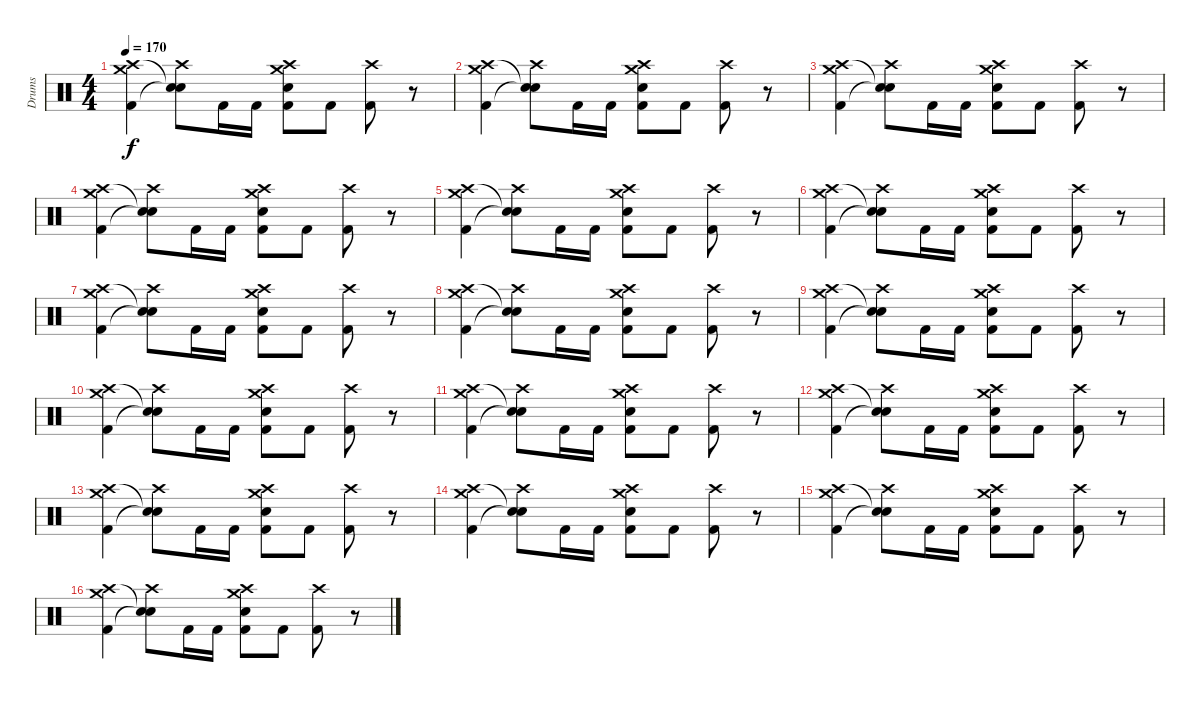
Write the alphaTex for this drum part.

\track ("Drums" "Drums") {instrument percussion}
\staff {score}
\articulation defaults
\ts (4 4)
\tempo 170
\clef neutral
\ks c
("Crash medium (hit)" "Crash high (hit)" "Kick (hit) 2").4{dy f} ("Crash high (hit)" "Snare (hit)"{t} "Snare (hit)"{t}).8 "Kick (hit) 2".16 "Kick (hit) 2".16 ("Crash high (hit)" "Snare (hit) 2" "Crash medium (hit)" "Kick (hit) 2").8 "Kick (hit) 2".8 ("Crash high (hit)" "Kick (hit) 2").8 r.8 |
("Crash medium (hit)" "Crash high (hit)" "Kick (hit) 2").4 ("Crash high (hit)" "Snare (hit)"{t} "Snare (hit)"{t}).8 "Kick (hit) 2".16 "Kick (hit) 2".16 ("Crash high (hit)" "Snare (hit) 2" "Crash medium (hit)" "Kick (hit) 2").8 "Kick (hit) 2".8 ("Crash high (hit)" "Kick (hit) 2").8 r.8 |
("Crash medium (hit)" "Crash high (hit)" "Kick (hit) 2").4 ("Crash high (hit)" "Snare (hit)"{t} "Snare (hit)"{t}).8 "Kick (hit) 2".16 "Kick (hit) 2".16 ("Crash high (hit)" "Snare (hit) 2" "Crash medium (hit)" "Kick (hit) 2").8 "Kick (hit) 2".8 ("Crash high (hit)" "Kick (hit) 2").8 r.8 |
("Crash medium (hit)" "Crash high (hit)" "Kick (hit) 2").4 ("Crash high (hit)" "Snare (hit)"{t} "Snare (hit)"{t}).8 "Kick (hit) 2".16 "Kick (hit) 2".16 ("Crash high (hit)" "Snare (hit) 2" "Crash medium (hit)" "Kick (hit) 2").8 "Kick (hit) 2".8 ("Crash high (hit)" "Kick (hit) 2").8 r.8 |
("Crash medium (hit)" "Crash high (hit)" "Kick (hit) 2").4 ("Crash high (hit)" "Snare (hit)"{t} "Snare (hit)"{t}).8 "Kick (hit) 2".16 "Kick (hit) 2".16 ("Crash high (hit)" "Snare (hit) 2" "Crash medium (hit)" "Kick (hit) 2").8 "Kick (hit) 2".8 ("Crash high (hit)" "Kick (hit) 2").8 r.8 |
("Crash medium (hit)" "Crash high (hit)" "Kick (hit) 2").4 ("Crash high (hit)" "Snare (hit)"{t} "Snare (hit)"{t}).8 "Kick (hit) 2".16 "Kick (hit) 2".16 ("Crash high (hit)" "Snare (hit) 2" "Crash medium (hit)" "Kick (hit) 2").8 "Kick (hit) 2".8 ("Crash high (hit)" "Kick (hit) 2").8 r.8 |
("Crash medium (hit)" "Crash high (hit)" "Kick (hit) 2").4 ("Crash high (hit)" "Snare (hit)"{t} "Snare (hit)"{t}).8 "Kick (hit) 2".16 "Kick (hit) 2".16 ("Crash high (hit)" "Snare (hit) 2" "Crash medium (hit)" "Kick (hit) 2").8 "Kick (hit) 2".8 ("Crash high (hit)" "Kick (hit) 2").8 r.8 |
("Crash medium (hit)" "Crash high (hit)" "Kick (hit) 2").4 ("Crash high (hit)" "Snare (hit)"{t} "Snare (hit)"{t}).8 "Kick (hit) 2".16 "Kick (hit) 2".16 ("Crash high (hit)" "Snare (hit) 2" "Crash medium (hit)" "Kick (hit) 2").8 "Kick (hit) 2".8 ("Crash high (hit)" "Kick (hit) 2").8 r.8 |
("Crash medium (hit)" "Crash high (hit)" "Kick (hit) 2").4 ("Crash high (hit)" "Snare (hit)"{t} "Snare (hit)"{t}).8 "Kick (hit) 2".16 "Kick (hit) 2".16 ("Crash high (hit)" "Snare (hit) 2" "Crash medium (hit)" "Kick (hit) 2").8 "Kick (hit) 2".8 ("Crash high (hit)" "Kick (hit) 2").8 r.8 |
("Crash medium (hit)" "Crash high (hit)" "Kick (hit) 2").4 ("Crash high (hit)" "Snare (hit)"{t} "Snare (hit)"{t}).8 "Kick (hit) 2".16 "Kick (hit) 2".16 ("Crash high (hit)" "Snare (hit) 2" "Crash medium (hit)" "Kick (hit) 2").8 "Kick (hit) 2".8 ("Crash high (hit)" "Kick (hit) 2").8 r.8 |
("Crash medium (hit)" "Crash high (hit)" "Kick (hit) 2").4 ("Crash high (hit)" "Snare (hit)"{t} "Snare (hit)"{t}).8 "Kick (hit) 2".16 "Kick (hit) 2".16 ("Crash high (hit)" "Snare (hit) 2" "Crash medium (hit)" "Kick (hit) 2").8 "Kick (hit) 2".8 ("Crash high (hit)" "Kick (hit) 2").8 r.8 |
("Crash medium (hit)" "Crash high (hit)" "Kick (hit) 2").4 ("Crash high (hit)" "Snare (hit)"{t} "Snare (hit)"{t}).8 "Kick (hit) 2".16 "Kick (hit) 2".16 ("Crash high (hit)" "Snare (hit) 2" "Crash medium (hit)" "Kick (hit) 2").8 "Kick (hit) 2".8 ("Crash high (hit)" "Kick (hit) 2").8 r.8 |
("Crash medium (hit)" "Crash high (hit)" "Kick (hit) 2").4 ("Crash high (hit)" "Snare (hit)"{t} "Snare (hit)"{t}).8 "Kick (hit) 2".16 "Kick (hit) 2".16 ("Crash high (hit)" "Snare (hit) 2" "Crash medium (hit)" "Kick (hit) 2").8 "Kick (hit) 2".8 ("Crash high (hit)" "Kick (hit) 2").8 r.8 |
("Crash medium (hit)" "Crash high (hit)" "Kick (hit) 2").4 ("Crash high (hit)" "Snare (hit)"{t} "Snare (hit)"{t}).8 "Kick (hit) 2".16 "Kick (hit) 2".16 ("Crash high (hit)" "Snare (hit) 2" "Crash medium (hit)" "Kick (hit) 2").8 "Kick (hit) 2".8 ("Crash high (hit)" "Kick (hit) 2").8 r.8 |
("Crash medium (hit)" "Crash high (hit)" "Kick (hit) 2").4 ("Crash high (hit)" "Snare (hit)"{t} "Snare (hit)"{t}).8 "Kick (hit) 2".16 "Kick (hit) 2".16 ("Crash high (hit)" "Snare (hit) 2" "Crash medium (hit)" "Kick (hit) 2").8 "Kick (hit) 2".8 ("Crash high (hit)" "Kick (hit) 2").8 r.8 |
("Crash medium (hit)" "Crash high (hit)" "Kick (hit) 2").4 ("Crash high (hit)" "Snare (hit)"{t} "Snare (hit)"{t}).8 "Kick (hit) 2".16 "Kick (hit) 2".16 ("Crash high (hit)" "Snare (hit) 2" "Crash medium (hit)" "Kick (hit) 2").8 "Kick (hit) 2".8 ("Crash high (hit)" "Kick (hit) 2").8 r.8
